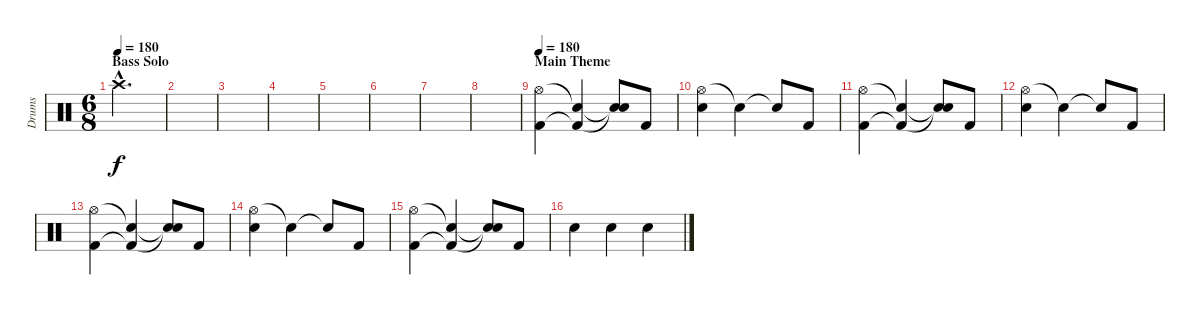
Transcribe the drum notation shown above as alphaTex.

\track ("Drums" "Drums") {instrument percussion}
\staff {score}
\articulation defaults
\ts (6 8)
\section ("" "Bass Solo")
\tempo 180
\clef neutral
\ks c "Crash high (hit)"{hac}.2{d dy f}
|
|
|
|
|
|
|
|
\section ("" "Main Theme")
\tempo 180
("Hi-Hat (open)" "Kick (hit) 2").4 ("Snare (hit)"{t} "Kick (hit) 2"{t}).4 ("Snare (hit)"{t} "Snare (hit)"{t}).8 "Kick (hit) 2".8 |
("Hi-Hat (open)" "Snare (hit) 2").4 "Snare (hit)"{t}.4 "Snare (hit)"{t}.8 "Kick (hit) 2".8 |
("Hi-Hat (open)" "Kick (hit) 2").4 ("Snare (hit)"{t} "Kick (hit) 2"{t}).4 ("Snare (hit)"{t} "Snare (hit)"{t}).8 "Kick (hit) 2".8 |
("Hi-Hat (open)" "Snare (hit) 2").4 "Snare (hit)"{t}.4 "Snare (hit)"{t}.8 "Kick (hit) 2".8 |
("Hi-Hat (open)" "Kick (hit) 2").4 ("Snare (hit)"{t} "Kick (hit) 2"{t}).4 ("Snare (hit)"{t} "Snare (hit)"{t}).8 "Kick (hit) 2".8 |
("Hi-Hat (open)" "Snare (hit) 2").4 "Snare (hit)"{t}.4 "Snare (hit)"{t}.8 "Kick (hit) 2".8 |
("Hi-Hat (open)" "Kick (hit) 2").4 ("Snare (hit)"{t} "Kick (hit) 2"{t}).4 ("Snare (hit)"{t} "Snare (hit)"{t}).8 "Kick (hit) 2".8 |
"Electric Snare (hit)".4 "Electric Snare (hit)".4 "Electric Snare (hit)".4
